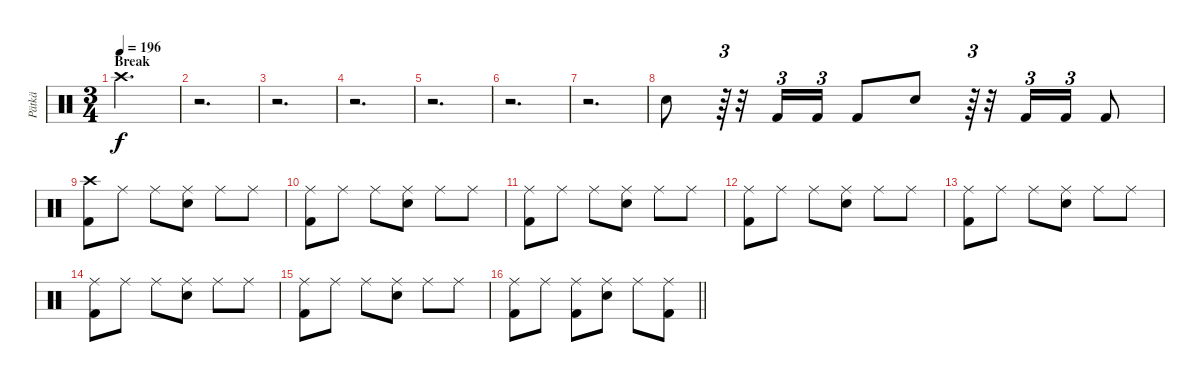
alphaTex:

\track ("Pätkä" "Pätkä") {instrument percussion}
\staff {score}
\articulation defaults
\ts (3 4)
\section ("" "Break")
\tempo 196
\clef neutral
\ks c "Crash high (hit)".2{d dy f}
|
r.2{d} |
r.2{d} |
r.2{d} |
r.2{d} |
r.2{d} |
r.2{d} |
"Electric Snare (hit)".8 r.64{tu (3 2)} r.32 "Kick (hit) 2".16{tu (3 2)} "Kick (hit) 2".16{tu (3 2)} "Kick (hit) 2".8 "Electric Snare (hit)".8 r.64{tu (3 2)} r.32 "Kick (hit) 2".16{tu (3 2)} "Kick (hit) 2".16{tu (3 2)} "Kick (hit) 2".8 |
("Crash high (hit)" "Kick (hit) 2").8 "Ride (middle)".8 "Ride (middle)".8 ("Ride (middle)" "Electric Snare (hit)").8 "Ride (middle)".8 "Ride (middle)".8 |
("Ride (middle)" "Kick (hit) 2").8 "Ride (middle)".8 "Ride (middle)".8 ("Ride (middle)" "Electric Snare (hit)").8 "Ride (middle)".8 "Ride (middle)".8 |
("Ride (middle)" "Kick (hit) 2").8 "Ride (middle)".8 "Ride (middle)".8 ("Ride (middle)" "Electric Snare (hit)").8 "Ride (middle)".8 "Ride (middle)".8 |
("Ride (middle)" "Kick (hit) 2").8 "Ride (middle)".8 "Ride (middle)".8 ("Ride (middle)" "Electric Snare (hit)").8 "Ride (middle)".8 "Ride (middle)".8 |
("Ride (middle)" "Kick (hit) 2").8 "Ride (middle)".8 "Ride (middle)".8 ("Ride (middle)" "Electric Snare (hit)").8 "Ride (middle)".8 "Ride (middle)".8 |
("Ride (middle)" "Kick (hit) 2").8 "Ride (middle)".8 "Ride (middle)".8 ("Ride (middle)" "Electric Snare (hit)").8 "Ride (middle)".8 "Ride (middle)".8 |
("Ride (middle)" "Kick (hit) 2").8 "Ride (middle)".8 "Ride (middle)".8 ("Ride (middle)" "Electric Snare (hit)").8 "Ride (middle)".8 "Ride (middle)".8 |
\barLineRight lightlight
("Ride (middle)" "Kick (hit) 2").8 "Ride (middle)".8 ("Ride (middle)" "Kick (hit) 2").8 ("Ride (middle)" "Electric Snare (hit)").8 "Ride (middle)".8 ("Ride (middle)" "Kick (hit) 2").8
